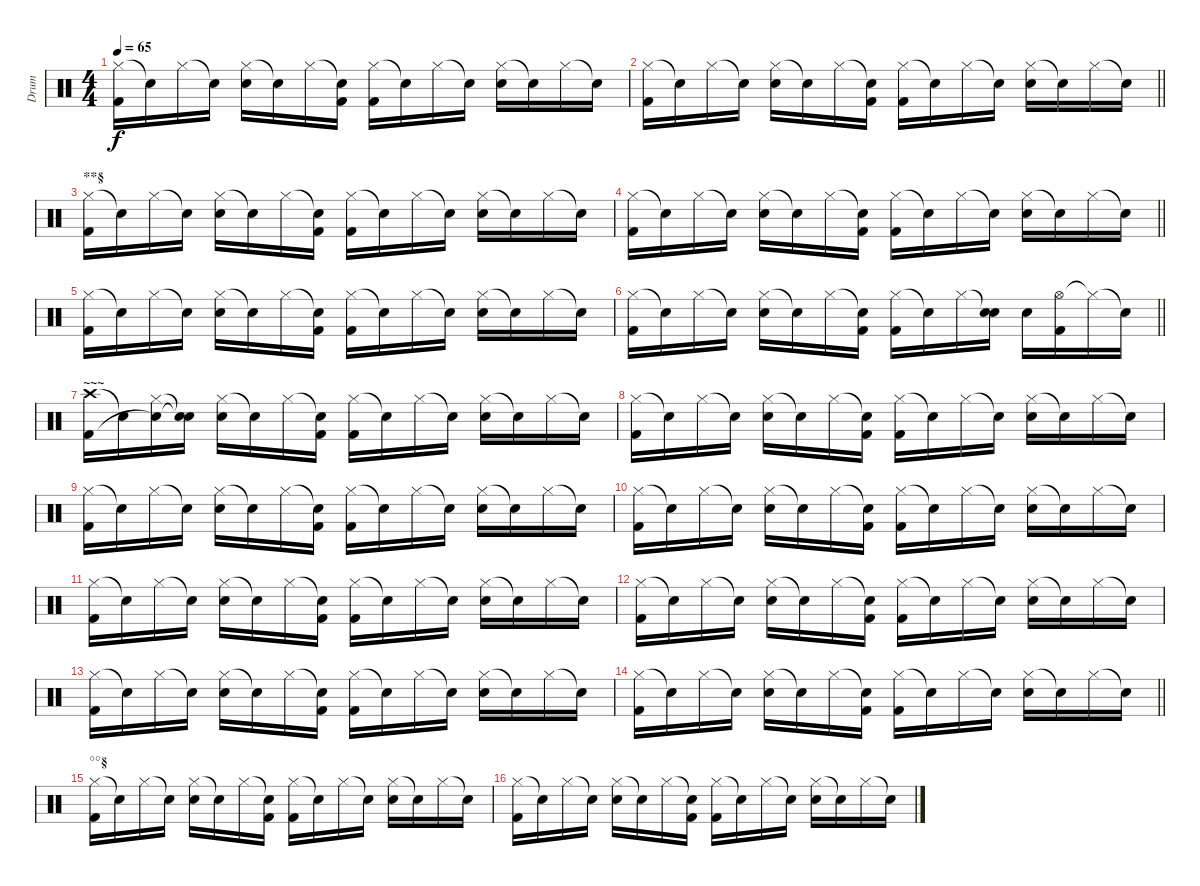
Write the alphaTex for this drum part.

\track ("Drum" "Drum") {instrument percussion}
\staff {score}
\articulation defaults
\ts (4 4)
\tempo 65
\clef neutral
\ks c
("Hi-Hat (closed)" "Kick (hit) 2").16{dy f} "Snare (hit)"{t}.16 "Hi-Hat (closed)".16 "Snare (hit)"{t}.16 ("Hi-Hat (closed)" "Snare (hit) 2").16 "Snare (hit)"{t}.16 "Hi-Hat (closed)".16 ("Snare (hit)"{t} "Kick (hit) 2").16 ("Hi-Hat (closed)" "Kick (hit) 2").16 "Snare (hit)"{t}.16 "Hi-Hat (closed)".16 "Snare (hit)"{t}.16 ("Hi-Hat (closed)" "Snare (hit) 2").16 "Snare (hit)"{t}.16 "Hi-Hat (closed)".16 "Snare (hit)"{t}.16 |
\barLineRight lightlight
("Hi-Hat (closed)" "Kick (hit) 2").16 "Snare (hit)"{t}.16 "Hi-Hat (closed)".16 "Snare (hit)"{t}.16 ("Hi-Hat (closed)" "Snare (hit) 2").16 "Snare (hit)"{t}.16 "Hi-Hat (closed)".16 ("Snare (hit)"{t} "Kick (hit) 2").16 ("Hi-Hat (closed)" "Kick (hit) 2").16 "Snare (hit)"{t}.16 "Hi-Hat (closed)".16 "Snare (hit)"{t}.16 ("Hi-Hat (closed)" "Snare (hit) 2").16 "Snare (hit)"{t}.16 "Hi-Hat (closed)".16 "Snare (hit)"{t}.16 |
\section ("" "**§")
("Hi-Hat (closed)" "Kick (hit) 2").16 "Snare (hit)"{t}.16 "Hi-Hat (closed)".16 "Snare (hit)"{t}.16 ("Hi-Hat (closed)" "Snare (hit) 2").16 "Snare (hit)"{t}.16 "Hi-Hat (closed)".16 ("Snare (hit)"{t} "Kick (hit) 2").16 ("Hi-Hat (closed)" "Kick (hit) 2").16 "Snare (hit)"{t}.16 "Hi-Hat (closed)".16 "Snare (hit)"{t}.16 ("Hi-Hat (closed)" "Snare (hit) 2").16 "Snare (hit)"{t}.16 "Hi-Hat (closed)".16 "Snare (hit)"{t}.16 |
\barLineRight lightlight
("Hi-Hat (closed)" "Kick (hit) 2").16 "Snare (hit)"{t}.16 "Hi-Hat (closed)".16 "Snare (hit)"{t}.16 ("Hi-Hat (closed)" "Snare (hit) 2").16 "Snare (hit)"{t}.16 "Hi-Hat (closed)".16 ("Snare (hit)"{t} "Kick (hit) 2").16 ("Hi-Hat (closed)" "Kick (hit) 2").16 "Snare (hit)"{t}.16 "Hi-Hat (closed)".16 "Snare (hit)"{t}.16 ("Hi-Hat (closed)" "Snare (hit) 2").16 "Snare (hit)"{t}.16 "Hi-Hat (closed)".16 "Snare (hit)"{t}.16 |
("Hi-Hat (closed)" "Kick (hit) 2").16 "Snare (hit)"{t}.16 "Hi-Hat (closed)".16 "Snare (hit)"{t}.16 ("Hi-Hat (closed)" "Snare (hit) 2").16 "Snare (hit)"{t}.16 "Hi-Hat (closed)".16 ("Snare (hit)"{t} "Kick (hit) 2").16 ("Hi-Hat (closed)" "Kick (hit) 2").16 "Snare (hit)"{t}.16 "Hi-Hat (closed)".16 "Snare (hit)"{t}.16 ("Hi-Hat (closed)" "Snare (hit) 2").16 "Snare (hit)"{t}.16 "Hi-Hat (closed)".16 "Snare (hit)"{t}.16 |
\barLineRight lightlight
("Hi-Hat (closed)" "Kick (hit) 2").16 "Snare (hit)"{t}.16 "Hi-Hat (closed)".16 "Snare (hit)"{t}.16 ("Hi-Hat (closed)" "Snare (hit) 2").16 "Snare (hit)"{t}.16 "Hi-Hat (closed)".16 ("Snare (hit)"{t} "Kick (hit) 2").16 ("Hi-Hat (closed)" "Kick (hit) 2").16 "Snare (hit)"{t}.16 "Hi-Hat (closed)".16 ("Snare (hit)"{t} "Snare (hit) 2").16 "Snare (hit) 2".16 ("Hi-Hat (open)" "Kick (hit) 2").16 "Hi-Hat (closed)"{t}.16 "Snare (hit)"{t}.16 |
\section ("" "~~~")
("Crash high (hit)" "Kick (hit) 2").16 "Snare (hit)"{t}.16 ("Hi-Hat (closed)" "Snare (hit)"{t}).16 ("Snare (hit)"{t} "Snare (hit)"{t}).16 ("Hi-Hat (closed)" "Snare (hit) 2").16 "Snare (hit)"{t}.16 "Hi-Hat (closed)".16 ("Snare (hit)"{t} "Kick (hit) 2").16 ("Hi-Hat (closed)" "Kick (hit) 2").16 "Snare (hit)"{t}.16 "Hi-Hat (closed)".16 "Snare (hit)"{t}.16 ("Hi-Hat (closed)" "Snare (hit) 2").16 "Snare (hit)"{t}.16 "Hi-Hat (closed)".16 "Snare (hit)"{t}.16 |
("Hi-Hat (closed)" "Kick (hit) 2").16 "Snare (hit)"{t}.16 "Hi-Hat (closed)".16 "Snare (hit)"{t}.16 ("Hi-Hat (closed)" "Snare (hit) 2").16 "Snare (hit)"{t}.16 "Hi-Hat (closed)".16 ("Snare (hit)"{t} "Kick (hit) 2").16 ("Hi-Hat (closed)" "Kick (hit) 2").16 "Snare (hit)"{t}.16 "Hi-Hat (closed)".16 "Snare (hit)"{t}.16 ("Hi-Hat (closed)" "Snare (hit) 2").16 "Snare (hit)"{t}.16 "Hi-Hat (closed)".16 "Snare (hit)"{t}.16 |
("Hi-Hat (closed)" "Kick (hit) 2").16 "Snare (hit)"{t}.16 "Hi-Hat (closed)".16 "Snare (hit)"{t}.16 ("Hi-Hat (closed)" "Snare (hit) 2").16 "Snare (hit)"{t}.16 "Hi-Hat (closed)".16 ("Snare (hit)"{t} "Kick (hit) 2").16 ("Hi-Hat (closed)" "Kick (hit) 2").16 "Snare (hit)"{t}.16 "Hi-Hat (closed)".16 "Snare (hit)"{t}.16 ("Hi-Hat (closed)" "Snare (hit) 2").16 "Snare (hit)"{t}.16 "Hi-Hat (closed)".16 "Snare (hit)"{t}.16 |
("Hi-Hat (closed)" "Kick (hit) 2").16 "Snare (hit)"{t}.16 "Hi-Hat (closed)".16 "Snare (hit)"{t}.16 ("Hi-Hat (closed)" "Snare (hit) 2").16 "Snare (hit)"{t}.16 "Hi-Hat (closed)".16 ("Snare (hit)"{t} "Kick (hit) 2").16 ("Hi-Hat (closed)" "Kick (hit) 2").16 "Snare (hit)"{t}.16 "Hi-Hat (closed)".16 "Snare (hit)"{t}.16 ("Hi-Hat (closed)" "Snare (hit) 2").16 "Snare (hit)"{t}.16 "Hi-Hat (closed)".16 "Snare (hit)"{t}.16 |
("Hi-Hat (closed)" "Kick (hit) 2").16 "Snare (hit)"{t}.16 "Hi-Hat (closed)".16 "Snare (hit)"{t}.16 ("Hi-Hat (closed)" "Snare (hit) 2").16 "Snare (hit)"{t}.16 "Hi-Hat (closed)".16 ("Snare (hit)"{t} "Kick (hit) 2").16 ("Hi-Hat (closed)" "Kick (hit) 2").16 "Snare (hit)"{t}.16 "Hi-Hat (closed)".16 "Snare (hit)"{t}.16 ("Hi-Hat (closed)" "Snare (hit) 2").16 "Snare (hit)"{t}.16 "Hi-Hat (closed)".16 "Snare (hit)"{t}.16 |
("Hi-Hat (closed)" "Kick (hit) 2").16 "Snare (hit)"{t}.16 "Hi-Hat (closed)".16 "Snare (hit)"{t}.16 ("Hi-Hat (closed)" "Snare (hit) 2").16 "Snare (hit)"{t}.16 "Hi-Hat (closed)".16 ("Snare (hit)"{t} "Kick (hit) 2").16 ("Hi-Hat (closed)" "Kick (hit) 2").16 "Snare (hit)"{t}.16 "Hi-Hat (closed)".16 "Snare (hit)"{t}.16 ("Hi-Hat (closed)" "Snare (hit) 2").16 "Snare (hit)"{t}.16 "Hi-Hat (closed)".16 "Snare (hit)"{t}.16 |
("Hi-Hat (closed)" "Kick (hit) 2").16 "Snare (hit)"{t}.16 "Hi-Hat (closed)".16 "Snare (hit)"{t}.16 ("Hi-Hat (closed)" "Snare (hit) 2").16 "Snare (hit)"{t}.16 "Hi-Hat (closed)".16 ("Snare (hit)"{t} "Kick (hit) 2").16 ("Hi-Hat (closed)" "Kick (hit) 2").16 "Snare (hit)"{t}.16 "Hi-Hat (closed)".16 "Snare (hit)"{t}.16 ("Hi-Hat (closed)" "Snare (hit) 2").16 "Snare (hit)"{t}.16 "Hi-Hat (closed)".16 "Snare (hit)"{t}.16 |
\barLineRight lightlight
("Hi-Hat (closed)" "Kick (hit) 2").16 "Snare (hit)"{t}.16 "Hi-Hat (closed)".16 "Snare (hit)"{t}.16 ("Hi-Hat (closed)" "Snare (hit) 2").16 "Snare (hit)"{t}.16 "Hi-Hat (closed)".16 ("Snare (hit)"{t} "Kick (hit) 2").16 ("Hi-Hat (closed)" "Kick (hit) 2").16 "Snare (hit)"{t}.16 "Hi-Hat (closed)".16 "Snare (hit)"{t}.16 ("Hi-Hat (closed)" "Snare (hit) 2").16 "Snare (hit)"{t}.16 "Hi-Hat (closed)".16 "Snare (hit)"{t}.16 |
\section ("" "°°§")
("Hi-Hat (closed)" "Kick (hit) 2").16 "Snare (hit)"{t}.16 "Hi-Hat (closed)".16 "Snare (hit)"{t}.16 ("Hi-Hat (closed)" "Snare (hit) 2").16 "Snare (hit)"{t}.16 "Hi-Hat (closed)".16 ("Snare (hit)"{t} "Kick (hit) 2").16 ("Hi-Hat (closed)" "Kick (hit) 2").16 "Snare (hit)"{t}.16 "Hi-Hat (closed)".16 "Snare (hit)"{t}.16 ("Hi-Hat (closed)" "Snare (hit) 2").16 "Snare (hit)"{t}.16 "Hi-Hat (closed)".16 "Snare (hit)"{t}.16 |
("Hi-Hat (closed)" "Kick (hit) 2").16 "Snare (hit)"{t}.16 "Hi-Hat (closed)".16 "Snare (hit)"{t}.16 ("Hi-Hat (closed)" "Snare (hit) 2").16 "Snare (hit)"{t}.16 "Hi-Hat (closed)".16 ("Snare (hit)"{t} "Kick (hit) 2").16 ("Hi-Hat (closed)" "Kick (hit) 2").16 "Snare (hit)"{t}.16 "Hi-Hat (closed)".16 "Snare (hit)"{t}.16 ("Hi-Hat (closed)" "Snare (hit) 2").16 "Snare (hit)"{t}.16 "Hi-Hat (closed)".16 "Snare (hit)"{t}.16
